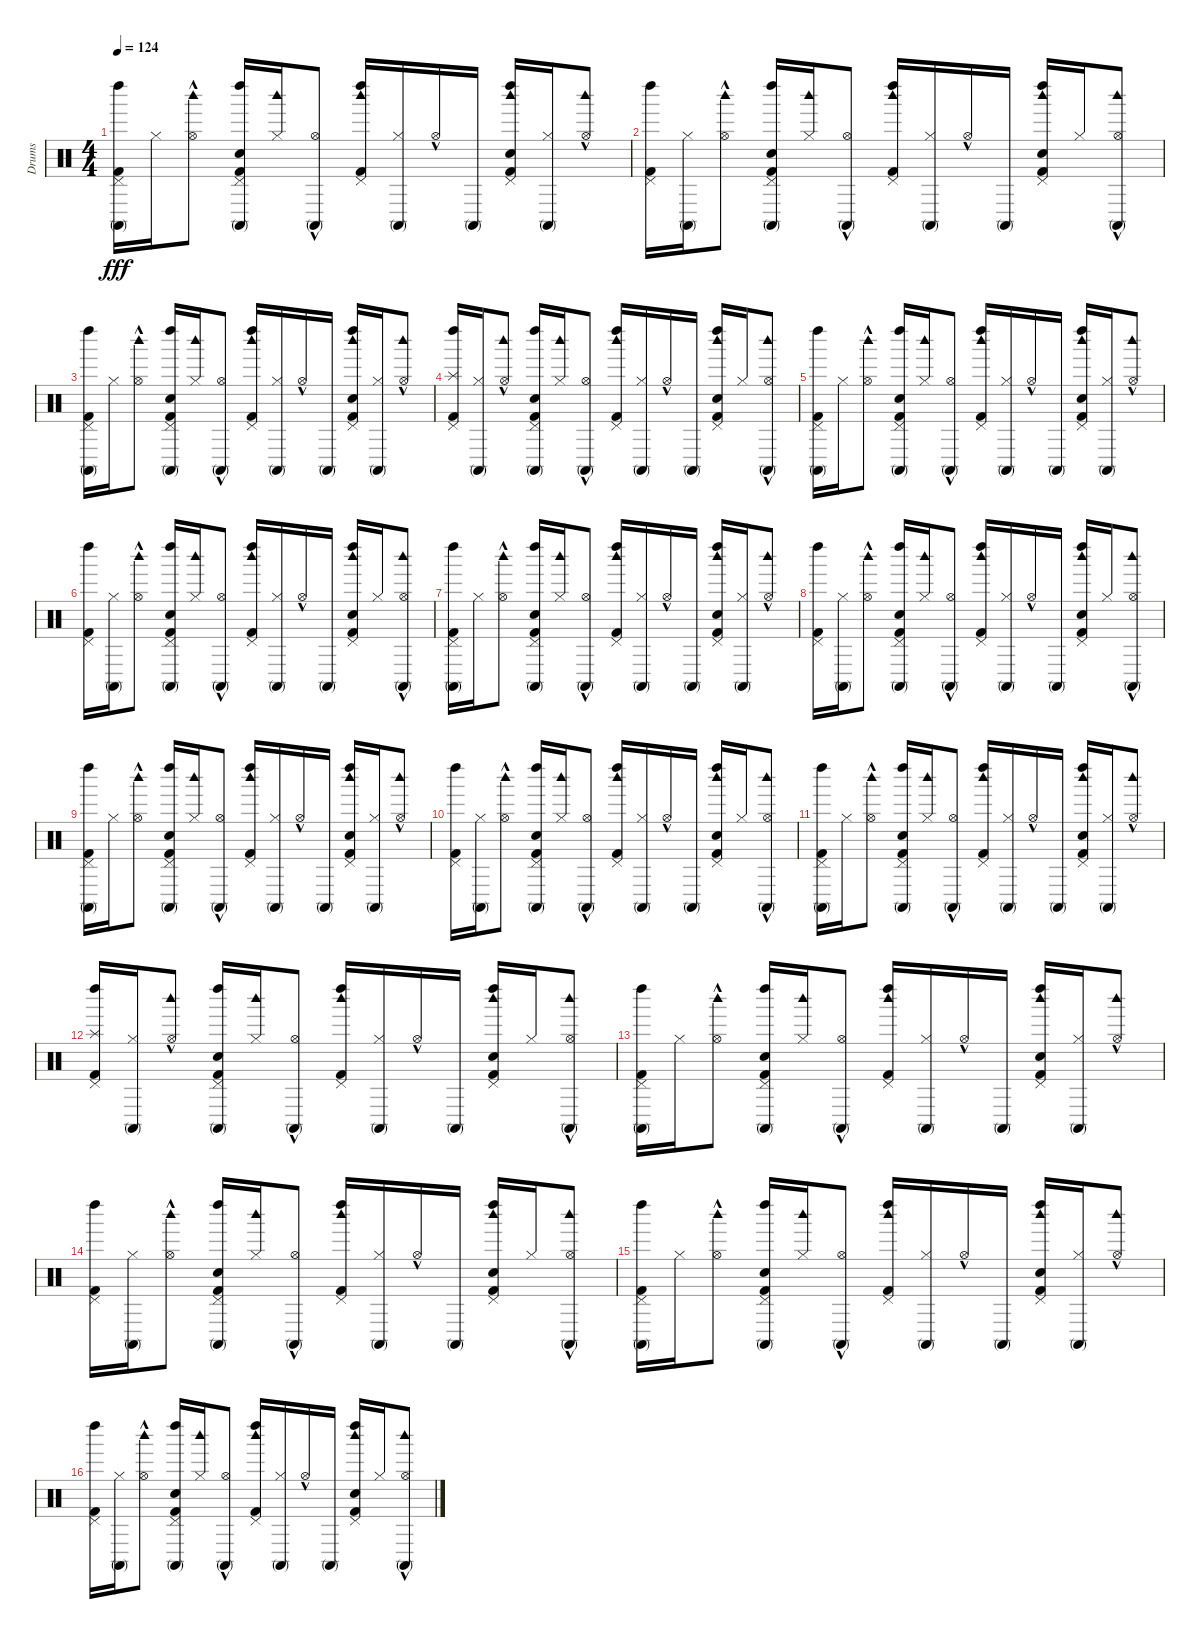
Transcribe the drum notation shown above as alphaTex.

\track ("Drums" "Drums") {instrument percussion}
\staff {score}
\articulation defaults
\ts (4 4)
\tempo 124
\clef neutral
\ks c
("Pedal Hi-Hat (hit)" "Kick (hit) 2" "Conga high (mute)" "Left Maraca (hit)").16{dy fff} "Hi-Hat (closed)".16 ("Hi-Hat (open)"{hac} "Woodblock high (hit)").8 ("Electric Snare (hit)" "Pedal Hi-Hat (hit)" "Kick (hit) 2" "Conga high (mute)" "Left Maraca (hit)").16 ("Hi-Hat (closed)" "Woodblock high (hit)").16 ("Hi-Hat (open)"{hac} "Conga high (mute)").8 ("Pedal Hi-Hat (hit)" "Kick (hit) 2" "Woodblock high (hit)" "Left Maraca (hit)").16 ("Hi-Hat (closed)" "Conga high (mute)").16 "Hi-Hat (open)"{hac}.16 "Conga high (mute)".16 ("Electric Snare (hit)" "Pedal Hi-Hat (hit)" "Kick (hit) 2" "Woodblock high (hit)" "Left Maraca (hit)").16 ("Hi-Hat (closed)" "Conga high (mute)").16 ("Hi-Hat (open)"{hac} "Woodblock high (hit)").8 |
("Pedal Hi-Hat (hit)" "Kick (hit) 2" "Left Maraca (hit)").16 ("Hi-Hat (closed)" "Conga high (mute)").16 ("Hi-Hat (open)"{hac} "Woodblock high (hit)").8 ("Electric Snare (hit)" "Pedal Hi-Hat (hit)" "Kick (hit) 2" "Conga high (mute)" "Left Maraca (hit)").16 ("Hi-Hat (closed)" "Woodblock high (hit)").16 ("Hi-Hat (open)"{hac} "Conga high (mute)").8 ("Pedal Hi-Hat (hit)" "Kick (hit) 2" "Woodblock high (hit)" "Left Maraca (hit)").16 ("Hi-Hat (closed)" "Conga high (mute)").16 "Hi-Hat (open)"{hac}.16 "Conga high (mute)".16 ("Electric Snare (hit)" "Pedal Hi-Hat (hit)" "Kick (hit) 2" "Woodblock high (hit)" "Left Maraca (hit)").16 "Hi-Hat (closed)".16 ("Hi-Hat (open)"{hac} "Conga high (mute)" "Woodblock high (hit)").8 |
("Pedal Hi-Hat (hit)" "Kick (hit) 2" "Conga high (mute)" "Left Maraca (hit)").16 "Hi-Hat (closed)".16 ("Hi-Hat (open)"{hac} "Woodblock high (hit)").8 ("Electric Snare (hit)" "Pedal Hi-Hat (hit)" "Kick (hit) 2" "Conga high (mute)" "Left Maraca (hit)").16 ("Hi-Hat (closed)" "Woodblock high (hit)").16 ("Hi-Hat (open)"{hac} "Conga high (mute)").8 ("Pedal Hi-Hat (hit)" "Kick (hit) 2" "Woodblock high (hit)" "Left Maraca (hit)").16 ("Hi-Hat (closed)" "Conga high (mute)").16 "Hi-Hat (open)"{hac}.16 "Conga high (mute)".16 ("Electric Snare (hit)" "Pedal Hi-Hat (hit)" "Kick (hit) 2" "Woodblock high (hit)" "Left Maraca (hit)").16 ("Hi-Hat (closed)" "Conga high (mute)").16 ("Hi-Hat (open)"{hac} "Woodblock high (hit)").8 |
("Splash (hit)" "Pedal Hi-Hat (hit)" "Kick (hit) 2" "Left Maraca (hit)").16 ("Hi-Hat (closed)" "Conga high (mute)").16 ("Hi-Hat (open)"{hac} "Woodblock high (hit)").8 ("Electric Snare (hit)" "Pedal Hi-Hat (hit)" "Kick (hit) 2" "Conga high (mute)" "Left Maraca (hit)").16 ("Hi-Hat (closed)" "Woodblock high (hit)").16 ("Hi-Hat (open)"{hac} "Conga high (mute)").8 ("Pedal Hi-Hat (hit)" "Kick (hit) 2" "Woodblock high (hit)" "Left Maraca (hit)").16 ("Hi-Hat (closed)" "Conga high (mute)").16 "Hi-Hat (open)"{hac}.16 "Conga high (mute)".16 ("Electric Snare (hit)" "Pedal Hi-Hat (hit)" "Kick (hit) 2" "Woodblock high (hit)" "Left Maraca (hit)").16 "Hi-Hat (closed)".16 ("Hi-Hat (open)"{hac} "Conga high (mute)" "Woodblock high (hit)").8 |
("Pedal Hi-Hat (hit)" "Kick (hit) 2" "Conga high (mute)" "Left Maraca (hit)").16 "Hi-Hat (closed)".16 ("Hi-Hat (open)"{hac} "Woodblock high (hit)").8 ("Electric Snare (hit)" "Pedal Hi-Hat (hit)" "Kick (hit) 2" "Conga high (mute)" "Left Maraca (hit)").16 ("Hi-Hat (closed)" "Woodblock high (hit)").16 ("Hi-Hat (open)"{hac} "Conga high (mute)").8 ("Pedal Hi-Hat (hit)" "Kick (hit) 2" "Woodblock high (hit)" "Left Maraca (hit)").16 ("Hi-Hat (closed)" "Conga high (mute)").16 "Hi-Hat (open)"{hac}.16 "Conga high (mute)".16 ("Electric Snare (hit)" "Pedal Hi-Hat (hit)" "Kick (hit) 2" "Woodblock high (hit)" "Left Maraca (hit)").16 ("Hi-Hat (closed)" "Conga high (mute)").16 ("Hi-Hat (open)"{hac} "Woodblock high (hit)").8 |
("Pedal Hi-Hat (hit)" "Kick (hit) 2" "Left Maraca (hit)").16 ("Hi-Hat (closed)" "Conga high (mute)").16 ("Hi-Hat (open)"{hac} "Woodblock high (hit)").8 ("Electric Snare (hit)" "Pedal Hi-Hat (hit)" "Kick (hit) 2" "Conga high (mute)" "Left Maraca (hit)").16 ("Hi-Hat (closed)" "Woodblock high (hit)").16 ("Hi-Hat (open)"{hac} "Conga high (mute)").8 ("Pedal Hi-Hat (hit)" "Kick (hit) 2" "Woodblock high (hit)" "Left Maraca (hit)").16 ("Hi-Hat (closed)" "Conga high (mute)").16 "Hi-Hat (open)"{hac}.16 "Conga high (mute)".16 ("Electric Snare (hit)" "Pedal Hi-Hat (hit)" "Kick (hit) 2" "Woodblock high (hit)" "Left Maraca (hit)").16 "Hi-Hat (closed)".16 ("Hi-Hat (open)"{hac} "Conga high (mute)" "Woodblock high (hit)").8 |
("Pedal Hi-Hat (hit)" "Kick (hit) 2" "Conga high (mute)" "Left Maraca (hit)").16 "Hi-Hat (closed)".16 ("Hi-Hat (open)"{hac} "Woodblock high (hit)").8 ("Electric Snare (hit)" "Pedal Hi-Hat (hit)" "Kick (hit) 2" "Conga high (mute)" "Left Maraca (hit)").16 ("Hi-Hat (closed)" "Woodblock high (hit)").16 ("Hi-Hat (open)"{hac} "Conga high (mute)").8 ("Pedal Hi-Hat (hit)" "Kick (hit) 2" "Woodblock high (hit)" "Left Maraca (hit)").16 ("Hi-Hat (closed)" "Conga high (mute)").16 "Hi-Hat (open)"{hac}.16 "Conga high (mute)".16 ("Electric Snare (hit)" "Pedal Hi-Hat (hit)" "Kick (hit) 2" "Woodblock high (hit)" "Left Maraca (hit)").16 ("Hi-Hat (closed)" "Conga high (mute)").16 ("Hi-Hat (open)"{hac} "Woodblock high (hit)").8 |
("Pedal Hi-Hat (hit)" "Kick (hit) 2" "Left Maraca (hit)").16 ("Hi-Hat (closed)" "Conga high (mute)").16 ("Hi-Hat (open)"{hac} "Woodblock high (hit)").8 ("Electric Snare (hit)" "Pedal Hi-Hat (hit)" "Kick (hit) 2" "Conga high (mute)" "Left Maraca (hit)").16 ("Hi-Hat (closed)" "Woodblock high (hit)").16 ("Hi-Hat (open)"{hac} "Conga high (mute)").8 ("Pedal Hi-Hat (hit)" "Kick (hit) 2" "Woodblock high (hit)" "Left Maraca (hit)").16 ("Hi-Hat (closed)" "Conga high (mute)").16 "Hi-Hat (open)"{hac}.16 "Conga high (mute)".16 ("Electric Snare (hit)" "Pedal Hi-Hat (hit)" "Kick (hit) 2" "Woodblock high (hit)" "Left Maraca (hit)").16 "Hi-Hat (closed)".16 ("Hi-Hat (open)"{hac} "Conga high (mute)" "Woodblock high (hit)").8 |
("Pedal Hi-Hat (hit)" "Kick (hit) 2" "Conga high (mute)" "Left Maraca (hit)").16 "Hi-Hat (closed)".16 ("Hi-Hat (open)"{hac} "Woodblock high (hit)").8 ("Electric Snare (hit)" "Pedal Hi-Hat (hit)" "Kick (hit) 2" "Conga high (mute)" "Left Maraca (hit)").16 ("Hi-Hat (closed)" "Woodblock high (hit)").16 ("Hi-Hat (open)"{hac} "Conga high (mute)").8 ("Pedal Hi-Hat (hit)" "Kick (hit) 2" "Woodblock high (hit)" "Left Maraca (hit)").16 ("Hi-Hat (closed)" "Conga high (mute)").16 "Hi-Hat (open)"{hac}.16 "Conga high (mute)".16 ("Electric Snare (hit)" "Pedal Hi-Hat (hit)" "Kick (hit) 2" "Woodblock high (hit)" "Left Maraca (hit)").16 ("Hi-Hat (closed)" "Conga high (mute)").16 ("Hi-Hat (open)"{hac} "Woodblock high (hit)").8 |
("Pedal Hi-Hat (hit)" "Kick (hit) 2" "Left Maraca (hit)").16 ("Hi-Hat (closed)" "Conga high (mute)").16 ("Hi-Hat (open)"{hac} "Woodblock high (hit)").8 ("Electric Snare (hit)" "Pedal Hi-Hat (hit)" "Kick (hit) 2" "Conga high (mute)" "Left Maraca (hit)").16 ("Hi-Hat (closed)" "Woodblock high (hit)").16 ("Hi-Hat (open)"{hac} "Conga high (mute)").8 ("Pedal Hi-Hat (hit)" "Kick (hit) 2" "Woodblock high (hit)" "Left Maraca (hit)").16 ("Hi-Hat (closed)" "Conga high (mute)").16 "Hi-Hat (open)"{hac}.16 "Conga high (mute)".16 ("Electric Snare (hit)" "Pedal Hi-Hat (hit)" "Kick (hit) 2" "Woodblock high (hit)" "Left Maraca (hit)").16 "Hi-Hat (closed)".16 ("Hi-Hat (open)"{hac} "Conga high (mute)" "Woodblock high (hit)").8 |
("Pedal Hi-Hat (hit)" "Kick (hit) 2" "Conga high (mute)" "Left Maraca (hit)").16 "Hi-Hat (closed)".16 ("Hi-Hat (open)"{hac} "Woodblock high (hit)").8 ("Electric Snare (hit)" "Pedal Hi-Hat (hit)" "Kick (hit) 2" "Conga high (mute)" "Left Maraca (hit)").16 ("Hi-Hat (closed)" "Woodblock high (hit)").16 ("Hi-Hat (open)"{hac} "Conga high (mute)").8 ("Pedal Hi-Hat (hit)" "Kick (hit) 2" "Woodblock high (hit)" "Left Maraca (hit)").16 ("Hi-Hat (closed)" "Conga high (mute)").16 "Hi-Hat (open)"{hac}.16 "Conga high (mute)".16 ("Electric Snare (hit)" "Pedal Hi-Hat (hit)" "Kick (hit) 2" "Woodblock high (hit)" "Left Maraca (hit)").16 ("Hi-Hat (closed)" "Conga high (mute)").16 ("Hi-Hat (open)"{hac} "Woodblock high (hit)").8 |
("Splash (hit)" "Pedal Hi-Hat (hit)" "Kick (hit) 2" "Left Maraca (hit)").16 ("Hi-Hat (closed)" "Conga high (mute)").16 ("Hi-Hat (open)"{hac} "Woodblock high (hit)").8 ("Electric Snare (hit)" "Pedal Hi-Hat (hit)" "Kick (hit) 2" "Conga high (mute)" "Left Maraca (hit)").16 ("Hi-Hat (closed)" "Woodblock high (hit)").16 ("Hi-Hat (open)"{hac} "Conga high (mute)").8 ("Pedal Hi-Hat (hit)" "Kick (hit) 2" "Woodblock high (hit)" "Left Maraca (hit)").16 ("Hi-Hat (closed)" "Conga high (mute)").16 "Hi-Hat (open)"{hac}.16 "Conga high (mute)".16 ("Electric Snare (hit)" "Pedal Hi-Hat (hit)" "Kick (hit) 2" "Woodblock high (hit)" "Left Maraca (hit)").16 "Hi-Hat (closed)".16 ("Hi-Hat (open)"{hac} "Conga high (mute)" "Woodblock high (hit)").8 |
("Pedal Hi-Hat (hit)" "Kick (hit) 2" "Conga high (mute)" "Left Maraca (hit)").16 "Hi-Hat (closed)".16 ("Hi-Hat (open)"{hac} "Woodblock high (hit)").8 ("Electric Snare (hit)" "Pedal Hi-Hat (hit)" "Kick (hit) 2" "Conga high (mute)" "Left Maraca (hit)").16 ("Hi-Hat (closed)" "Woodblock high (hit)").16 ("Hi-Hat (open)"{hac} "Conga high (mute)").8 ("Pedal Hi-Hat (hit)" "Kick (hit) 2" "Woodblock high (hit)" "Left Maraca (hit)").16 ("Hi-Hat (closed)" "Conga high (mute)").16 "Hi-Hat (open)"{hac}.16 "Conga high (mute)".16 ("Electric Snare (hit)" "Pedal Hi-Hat (hit)" "Kick (hit) 2" "Woodblock high (hit)" "Left Maraca (hit)").16 ("Hi-Hat (closed)" "Conga high (mute)").16 ("Hi-Hat (open)"{hac} "Woodblock high (hit)").8 |
("Pedal Hi-Hat (hit)" "Kick (hit) 2" "Left Maraca (hit)").16 ("Hi-Hat (closed)" "Conga high (mute)").16 ("Hi-Hat (open)"{hac} "Woodblock high (hit)").8 ("Electric Snare (hit)" "Pedal Hi-Hat (hit)" "Kick (hit) 2" "Conga high (mute)" "Left Maraca (hit)").16 ("Hi-Hat (closed)" "Woodblock high (hit)").16 ("Hi-Hat (open)"{hac} "Conga high (mute)").8 ("Pedal Hi-Hat (hit)" "Kick (hit) 2" "Woodblock high (hit)" "Left Maraca (hit)").16 ("Hi-Hat (closed)" "Conga high (mute)").16 "Hi-Hat (open)"{hac}.16 "Conga high (mute)".16 ("Electric Snare (hit)" "Pedal Hi-Hat (hit)" "Kick (hit) 2" "Woodblock high (hit)" "Left Maraca (hit)").16 "Hi-Hat (closed)".16 ("Hi-Hat (open)"{hac} "Conga high (mute)" "Woodblock high (hit)").8 |
("Pedal Hi-Hat (hit)" "Kick (hit) 2" "Conga high (mute)" "Left Maraca (hit)").16 "Hi-Hat (closed)".16 ("Hi-Hat (open)"{hac} "Woodblock high (hit)").8 ("Electric Snare (hit)" "Pedal Hi-Hat (hit)" "Kick (hit) 2" "Conga high (mute)" "Left Maraca (hit)").16 ("Hi-Hat (closed)" "Woodblock high (hit)").16 ("Hi-Hat (open)"{hac} "Conga high (mute)").8 ("Pedal Hi-Hat (hit)" "Kick (hit) 2" "Woodblock high (hit)" "Left Maraca (hit)").16 ("Hi-Hat (closed)" "Conga high (mute)").16 "Hi-Hat (open)"{hac}.16 "Conga high (mute)".16 ("Electric Snare (hit)" "Pedal Hi-Hat (hit)" "Kick (hit) 2" "Woodblock high (hit)" "Left Maraca (hit)").16 ("Hi-Hat (closed)" "Conga high (mute)").16 ("Hi-Hat (open)"{hac} "Woodblock high (hit)").8 |
("Pedal Hi-Hat (hit)" "Kick (hit) 2" "Left Maraca (hit)").16 ("Hi-Hat (closed)" "Conga high (mute)").16 ("Hi-Hat (open)"{hac} "Woodblock high (hit)").8 ("Electric Snare (hit)" "Pedal Hi-Hat (hit)" "Kick (hit) 2" "Conga high (mute)" "Left Maraca (hit)").16 ("Hi-Hat (closed)" "Woodblock high (hit)").16 ("Hi-Hat (open)"{hac} "Conga high (mute)").8 ("Pedal Hi-Hat (hit)" "Kick (hit) 2" "Woodblock high (hit)" "Left Maraca (hit)").16 ("Hi-Hat (closed)" "Conga high (mute)").16 "Hi-Hat (open)"{hac}.16 "Conga high (mute)".16 ("Electric Snare (hit)" "Pedal Hi-Hat (hit)" "Kick (hit) 2" "Woodblock high (hit)" "Left Maraca (hit)").16 "Hi-Hat (closed)".16 ("Hi-Hat (open)"{hac} "Conga high (mute)" "Woodblock high (hit)").8
